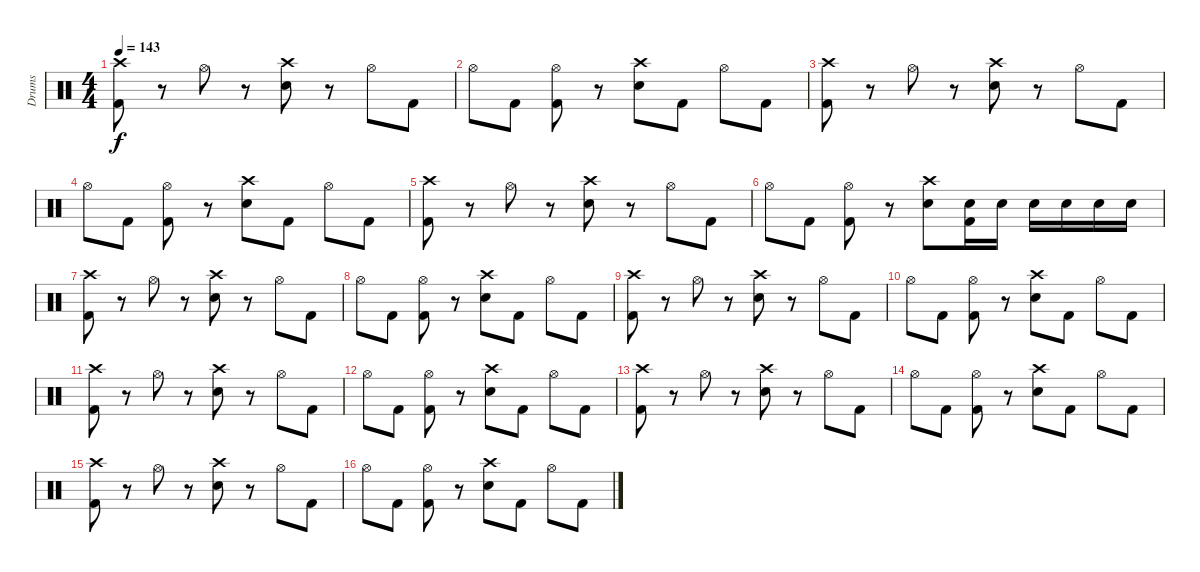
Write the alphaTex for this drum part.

\track ("Drums" "Drums") {instrument percussion}
\staff {score}
\articulation defaults
\ts (4 4)
\tempo 143
\clef neutral
\ks c
("Crash high (hit)" "Kick (hit) 2").8{dy f} r.8 "Hi-Hat (open)".8 r.8 ("Crash high (hit)" "Electric Snare (hit)").8 r.8 "Hi-Hat (open)".8 "Kick (hit) 2".8 |
"Hi-Hat (open)".8 "Kick (hit) 2".8 ("Kick (hit) 2" "Hi-Hat (open)").8 r.8 ("Crash high (hit)" "Electric Snare (hit)").8 "Kick (hit) 2".8 "Hi-Hat (open)".8 "Kick (hit) 2".8 |
("Crash high (hit)" "Kick (hit) 2").8 r.8 "Hi-Hat (open)".8 r.8 ("Crash high (hit)" "Electric Snare (hit)").8 r.8 "Hi-Hat (open)".8 "Kick (hit) 2".8 |
"Hi-Hat (open)".8 "Kick (hit) 2".8 ("Kick (hit) 2" "Hi-Hat (open)").8 r.8 ("Crash high (hit)" "Electric Snare (hit)").8 "Kick (hit) 2".8 "Hi-Hat (open)".8 "Kick (hit) 2".8 |
("Crash high (hit)" "Kick (hit) 2").8 r.8 "Hi-Hat (open)".8 r.8 ("Crash high (hit)" "Electric Snare (hit)").8 r.8 "Hi-Hat (open)".8 "Kick (hit) 2".8 |
"Hi-Hat (open)".8 "Kick (hit) 2".8 ("Kick (hit) 2" "Hi-Hat (open)").8 r.8 ("Crash high (hit)" "Electric Snare (hit)").8 ("Electric Snare (hit)" "Kick (hit) 2").16 "Electric Snare (hit)".16 "Electric Snare (hit)".16 "Electric Snare (hit)".16 "Electric Snare (hit)".16 "Electric Snare (hit)".16 |
("Crash high (hit)" "Kick (hit) 2").8 r.8 "Hi-Hat (open)".8 r.8 ("Crash high (hit)" "Electric Snare (hit)").8 r.8 "Hi-Hat (open)".8 "Kick (hit) 2".8 |
"Hi-Hat (open)".8 "Kick (hit) 2".8 ("Kick (hit) 2" "Hi-Hat (open)").8 r.8 ("Crash high (hit)" "Electric Snare (hit)").8 "Kick (hit) 2".8 "Hi-Hat (open)".8 "Kick (hit) 2".8 |
("Crash high (hit)" "Kick (hit) 2").8 r.8 "Hi-Hat (open)".8 r.8 ("Crash high (hit)" "Electric Snare (hit)").8 r.8 "Hi-Hat (open)".8 "Kick (hit) 2".8 |
"Hi-Hat (open)".8 "Kick (hit) 2".8 ("Kick (hit) 2" "Hi-Hat (open)").8 r.8 ("Crash high (hit)" "Electric Snare (hit)").8 "Kick (hit) 2".8 "Hi-Hat (open)".8 "Kick (hit) 2".8 |
("Crash high (hit)" "Kick (hit) 2").8 r.8 "Hi-Hat (open)".8 r.8 ("Crash high (hit)" "Electric Snare (hit)").8 r.8 "Hi-Hat (open)".8 "Kick (hit) 2".8 |
"Hi-Hat (open)".8 "Kick (hit) 2".8 ("Kick (hit) 2" "Hi-Hat (open)").8 r.8 ("Crash high (hit)" "Electric Snare (hit)").8 "Kick (hit) 2".8 "Hi-Hat (open)".8 "Kick (hit) 2".8 |
("Crash high (hit)" "Kick (hit) 2").8 r.8 "Hi-Hat (open)".8 r.8 ("Crash high (hit)" "Electric Snare (hit)").8 r.8 "Hi-Hat (open)".8 "Kick (hit) 2".8 |
"Hi-Hat (open)".8 "Kick (hit) 2".8 ("Kick (hit) 2" "Hi-Hat (open)").8 r.8 ("Crash high (hit)" "Electric Snare (hit)").8 "Kick (hit) 2".8 "Hi-Hat (open)".8 "Kick (hit) 2".8 |
("Crash high (hit)" "Kick (hit) 2").8 r.8 "Hi-Hat (open)".8 r.8 ("Crash high (hit)" "Electric Snare (hit)").8 r.8 "Hi-Hat (open)".8 "Kick (hit) 2".8 |
"Hi-Hat (open)".8 "Kick (hit) 2".8 ("Kick (hit) 2" "Hi-Hat (open)").8 r.8 ("Crash high (hit)" "Electric Snare (hit)").8 "Kick (hit) 2".8 "Hi-Hat (open)".8 "Kick (hit) 2".8
